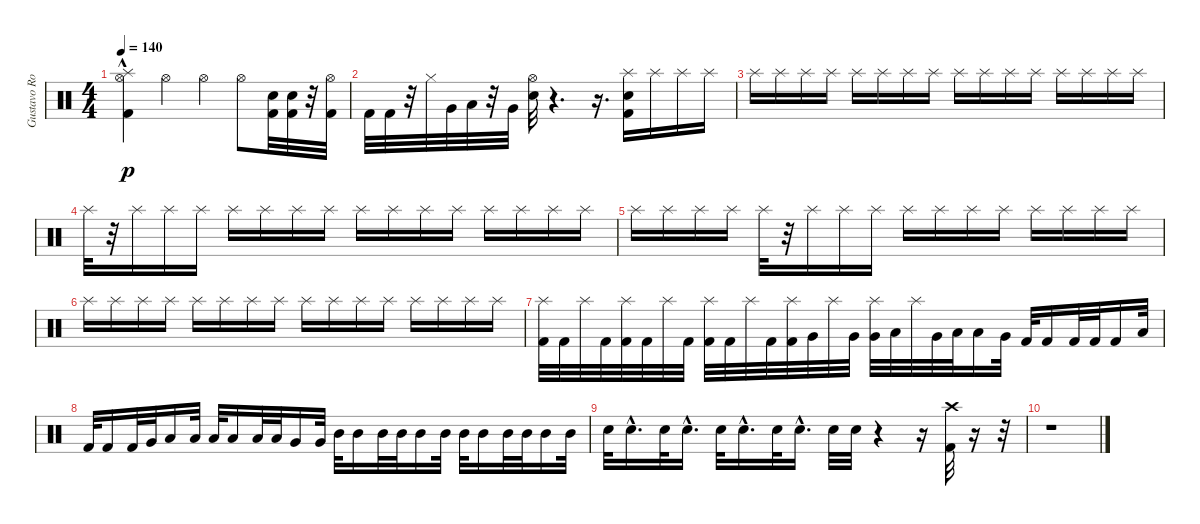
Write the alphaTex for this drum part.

\track ("Gustavo Rowek" "Gustavo Ro") {instrument percussion}
\staff {score}
\articulation defaults
\ts (4 4)
\tempo 140
\clef neutral
\ks c
("Hi-Hat (open)" "Kick (hit) 2"{hac} "Splash (hit)"{hac}).4{dy p} "Hi-Hat (open)".4 "Hi-Hat (open)".4 "Hi-Hat (open)".8 ("Snare (hit) 2" "Kick (hit) 2").32 ("Snare (hit) 2" "Kick (hit) 2").32 r.32 ("Hi-Hat (open)" "Kick (hit) 2").32 |
"Kick (hit) 2".32 "Kick (hit) 2".32 r.32 "Hi-Hat (closed)".32 "Very Low Tom (hit)".32 "Low Tom (hit)".32 r.32 "Very Low Tom (hit)".32 ("Hi-Hat (open)" "Snare (hit) 2").32 r.4{d} r.16{d} ("Splash (hit)" "Snare (hit) 2" "Kick (hit) 2").16 "Splash (hit)".16 "Splash (hit)".16 "Splash (hit)".16 |
"Splash (hit)".16 "Splash (hit)".16 "Splash (hit)".16 "Splash (hit)".16 "Splash (hit)".16 "Splash (hit)".16 "Splash (hit)".16 "Splash (hit)".16 "Splash (hit)".16 "Splash (hit)".16 "Splash (hit)".16 "Splash (hit)".16 "Splash (hit)".16 "Splash (hit)".16 "Splash (hit)".16 "Splash (hit)".16 |
"Splash (hit)".32 r.32 "Splash (hit)".16 "Splash (hit)".16 "Splash (hit)".16 "Splash (hit)".16 "Splash (hit)".16 "Splash (hit)".16 "Splash (hit)".16 "Splash (hit)".16 "Splash (hit)".16 "Splash (hit)".16 "Splash (hit)".16 "Splash (hit)".16 "Splash (hit)".16 "Splash (hit)".16 "Splash (hit)".16 |
"Splash (hit)".16 "Splash (hit)".16 "Splash (hit)".16 "Splash (hit)".16 "Splash (hit)".32 r.32 "Splash (hit)".16 "Splash (hit)".16 "Splash (hit)".16 "Splash (hit)".16 "Splash (hit)".16 "Splash (hit)".16 "Splash (hit)".16 "Splash (hit)".16 "Splash (hit)".16 "Splash (hit)".16 "Splash (hit)".16 |
"Splash (hit)".16 "Splash (hit)".16 "Splash (hit)".16 "Splash (hit)".16 "Splash (hit)".16 "Splash (hit)".16 "Splash (hit)".16 "Splash (hit)".16 "Splash (hit)".16 "Splash (hit)".16 "Splash (hit)".16 "Splash (hit)".16 "Splash (hit)".16 "Splash (hit)".16 "Splash (hit)".16 "Splash (hit)".16 |
("Splash (hit)" "Kick (hit) 2").32 "Kick (hit) 2".32 "Splash (hit)".32 "Kick (hit) 2".32 ("Splash (hit)" "Kick (hit) 2").32 "Kick (hit) 2".32 "Splash (hit)".32 "Kick (hit) 2".32 ("Splash (hit)" "Kick (hit) 2").32 "Kick (hit) 2".32 "Splash (hit)".32 "Kick (hit) 2".32 ("Splash (hit)" "Kick (hit) 2").32 "Very Low Tom (hit)".32 "Splash (hit)".32 "Very Low Tom (hit)".32 ("Splash (hit)" "Very Low Tom (hit)").32 "Low Tom (hit)".32 "Splash (hit)".32 "Very Low Tom (hit)".32 "Low Tom (hit)".32 "Low Tom (hit)".16 "Very Low Tom (hit)".32 "Kick (hit) 2".32 "Kick (hit) 2".16 "Kick (hit) 2".32 "Kick (hit) 2".32 "Kick (hit) 2".16 "Low Tom (hit)".32 |
"Kick (hit) 2".32 "Kick (hit) 2".16 "Kick (hit) 2".32 "Very Low Tom (hit)".32 "Low Tom (hit)".16 "Low Tom (hit)".32 "Low Tom (hit)".32 "Low Tom (hit)".16 "Low Tom (hit)".32 "Low Tom (hit)".32 "Very Low Tom (hit)".16 "Very Low Tom (hit)".32 "Mid Tom (hit)".32 "Mid Tom (hit)".16 "Mid Tom (hit)".32 "Mid Tom (hit)".32 "Mid Tom (hit)".16 "Mid Tom (hit)".32 "Mid Tom (hit)".32 "Mid Tom (hit)".16 "Mid Tom (hit)".32 "Mid Tom (hit)".32 "Mid Tom (hit)".16 "Mid Tom (hit)".32 |
"Snare (hit) 2".32 "Snare (hit) 2"{hac}.16{d} "Snare (hit) 2".32 "Snare (hit) 2"{hac}.16{d} "Snare (hit) 2".32 "Snare (hit) 2"{hac}.16{d} "Snare (hit) 2".32 "Snare (hit) 2"{hac}.16{d} "Snare (hit) 2".32 "Snare (hit) 2".32 r.4 r.16 ("Crash high (hit)" "Kick (hit) 2").32 r.16 r.32 |
r.1
